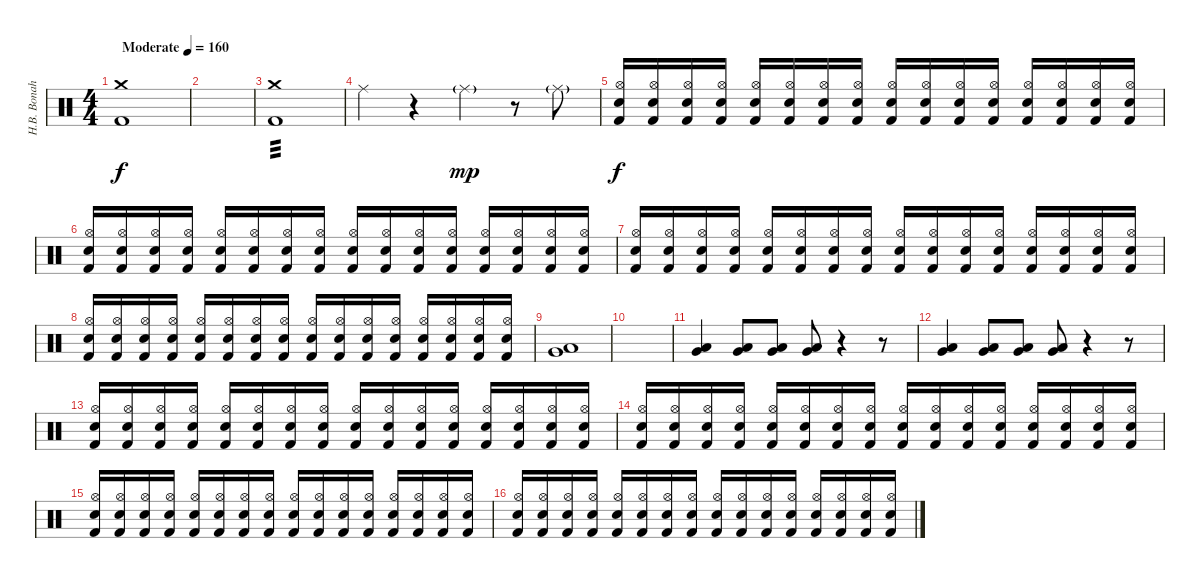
\track ("H.B. Bonah" "H.B. Bonah") {instrument percussion}
\staff {score}
\articulation defaults
\ts (4 4)
\tempo (160 "Moderate")
\clef neutral
\ks c
("Crash medium (hit)" "Kick (hit) 2").1{dy f} |
|
("Crash medium (hit)" "Kick (hit) 2").1{tp 3} |
"Ride (middle)".4 r.4 "Ride (middle)"{g}.4{dy mp} r.8 "Ride (middle)"{g}.8 |
("Hi-Hat (open)" "Electric Snare (hit)" "Kick (hit) 2").16{dy f} ("Hi-Hat (open)" "Electric Snare (hit)" "Kick (hit) 2").16 ("Hi-Hat (open)" "Electric Snare (hit)" "Kick (hit) 2").16 ("Hi-Hat (open)" "Electric Snare (hit)" "Kick (hit) 2").16 ("Hi-Hat (open)" "Electric Snare (hit)" "Kick (hit) 2").16 ("Hi-Hat (open)" "Electric Snare (hit)" "Kick (hit) 2").16 ("Hi-Hat (open)" "Electric Snare (hit)" "Kick (hit) 2").16 ("Hi-Hat (open)" "Electric Snare (hit)" "Kick (hit) 2").16 ("Hi-Hat (open)" "Electric Snare (hit)" "Kick (hit) 2").16 ("Hi-Hat (open)" "Electric Snare (hit)" "Kick (hit) 2").16 ("Hi-Hat (open)" "Electric Snare (hit)" "Kick (hit) 2").16 ("Hi-Hat (open)" "Electric Snare (hit)" "Kick (hit) 2").16 ("Hi-Hat (open)" "Electric Snare (hit)" "Kick (hit) 2").16 ("Hi-Hat (open)" "Electric Snare (hit)" "Kick (hit) 2").16 ("Hi-Hat (open)" "Electric Snare (hit)" "Kick (hit) 2").16 ("Hi-Hat (open)" "Electric Snare (hit)" "Kick (hit) 2").16 |
("Hi-Hat (open)" "Electric Snare (hit)" "Kick (hit) 2").16 ("Hi-Hat (open)" "Electric Snare (hit)" "Kick (hit) 2").16 ("Hi-Hat (open)" "Electric Snare (hit)" "Kick (hit) 2").16 ("Hi-Hat (open)" "Electric Snare (hit)" "Kick (hit) 2").16 ("Hi-Hat (open)" "Electric Snare (hit)" "Kick (hit) 2").16 ("Hi-Hat (open)" "Electric Snare (hit)" "Kick (hit) 2").16 ("Hi-Hat (open)" "Electric Snare (hit)" "Kick (hit) 2").16 ("Hi-Hat (open)" "Electric Snare (hit)" "Kick (hit) 2").16 ("Hi-Hat (open)" "Electric Snare (hit)" "Kick (hit) 2").16 ("Hi-Hat (open)" "Electric Snare (hit)" "Kick (hit) 2").16 ("Hi-Hat (open)" "Electric Snare (hit)" "Kick (hit) 2").16 ("Hi-Hat (open)" "Electric Snare (hit)" "Kick (hit) 2").16 ("Hi-Hat (open)" "Electric Snare (hit)" "Kick (hit) 2").16 ("Hi-Hat (open)" "Electric Snare (hit)" "Kick (hit) 2").16 ("Hi-Hat (open)" "Electric Snare (hit)" "Kick (hit) 2").16 ("Hi-Hat (open)" "Electric Snare (hit)" "Kick (hit) 2").16 |
("Hi-Hat (open)" "Electric Snare (hit)" "Kick (hit) 2").16 ("Hi-Hat (open)" "Electric Snare (hit)" "Kick (hit) 2").16 ("Hi-Hat (open)" "Electric Snare (hit)" "Kick (hit) 2").16 ("Hi-Hat (open)" "Electric Snare (hit)" "Kick (hit) 2").16 ("Hi-Hat (open)" "Electric Snare (hit)" "Kick (hit) 2").16 ("Hi-Hat (open)" "Electric Snare (hit)" "Kick (hit) 2").16 ("Hi-Hat (open)" "Electric Snare (hit)" "Kick (hit) 2").16 ("Hi-Hat (open)" "Electric Snare (hit)" "Kick (hit) 2").16 ("Hi-Hat (open)" "Electric Snare (hit)" "Kick (hit) 2").16 ("Hi-Hat (open)" "Electric Snare (hit)" "Kick (hit) 2").16 ("Hi-Hat (open)" "Electric Snare (hit)" "Kick (hit) 2").16 ("Hi-Hat (open)" "Electric Snare (hit)" "Kick (hit) 2").16 ("Hi-Hat (open)" "Electric Snare (hit)" "Kick (hit) 2").16 ("Hi-Hat (open)" "Electric Snare (hit)" "Kick (hit) 2").16 ("Hi-Hat (open)" "Electric Snare (hit)" "Kick (hit) 2").16 ("Hi-Hat (open)" "Electric Snare (hit)" "Kick (hit) 2").16 |
("Hi-Hat (open)" "Electric Snare (hit)" "Kick (hit) 2").16 ("Hi-Hat (open)" "Electric Snare (hit)" "Kick (hit) 2").16 ("Hi-Hat (open)" "Electric Snare (hit)" "Kick (hit) 2").16 ("Hi-Hat (open)" "Electric Snare (hit)" "Kick (hit) 2").16 ("Hi-Hat (open)" "Electric Snare (hit)" "Kick (hit) 2").16 ("Hi-Hat (open)" "Electric Snare (hit)" "Kick (hit) 2").16 ("Hi-Hat (open)" "Electric Snare (hit)" "Kick (hit) 2").16 ("Hi-Hat (open)" "Electric Snare (hit)" "Kick (hit) 2").16 ("Hi-Hat (open)" "Electric Snare (hit)" "Kick (hit) 2").16 ("Hi-Hat (open)" "Electric Snare (hit)" "Kick (hit) 2").16 ("Hi-Hat (open)" "Electric Snare (hit)" "Kick (hit) 2").16 ("Hi-Hat (open)" "Electric Snare (hit)" "Kick (hit) 2").16 ("Hi-Hat (open)" "Electric Snare (hit)" "Kick (hit) 2").16 ("Hi-Hat (open)" "Electric Snare (hit)" "Kick (hit) 2").16 ("Hi-Hat (open)" "Electric Snare (hit)" "Kick (hit) 2").16 ("Hi-Hat (open)" "Electric Snare (hit)" "Kick (hit) 2").16 |
("Very Low Tom (hit)" "Low Floor Tom (hit)").1 |
|
("Very Low Tom (hit)" "Low Floor Tom (hit)").4 ("Very Low Tom (hit)" "Low Floor Tom (hit)").8 ("Very Low Tom (hit)" "Low Floor Tom (hit)").8 ("Very Low Tom (hit)" "Low Floor Tom (hit)").8 r.4 r.8 |
("Very Low Tom (hit)" "Low Floor Tom (hit)").4 ("Very Low Tom (hit)" "Low Floor Tom (hit)").8 ("Very Low Tom (hit)" "Low Floor Tom (hit)").8 ("Very Low Tom (hit)" "Low Floor Tom (hit)").8 r.4 r.8 |
("Hi-Hat (open)" "Electric Snare (hit)" "Kick (hit) 2").16 ("Hi-Hat (open)" "Electric Snare (hit)" "Kick (hit) 2").16 ("Hi-Hat (open)" "Electric Snare (hit)" "Kick (hit) 2").16 ("Hi-Hat (open)" "Electric Snare (hit)" "Kick (hit) 2").16 ("Hi-Hat (open)" "Electric Snare (hit)" "Kick (hit) 2").16 ("Hi-Hat (open)" "Electric Snare (hit)" "Kick (hit) 2").16 ("Hi-Hat (open)" "Electric Snare (hit)" "Kick (hit) 2").16 ("Hi-Hat (open)" "Electric Snare (hit)" "Kick (hit) 2").16 ("Hi-Hat (open)" "Electric Snare (hit)" "Kick (hit) 2").16 ("Hi-Hat (open)" "Electric Snare (hit)" "Kick (hit) 2").16 ("Hi-Hat (open)" "Electric Snare (hit)" "Kick (hit) 2").16 ("Hi-Hat (open)" "Electric Snare (hit)" "Kick (hit) 2").16 ("Hi-Hat (open)" "Electric Snare (hit)" "Kick (hit) 2").16 ("Hi-Hat (open)" "Electric Snare (hit)" "Kick (hit) 2").16 ("Hi-Hat (open)" "Electric Snare (hit)" "Kick (hit) 2").16 ("Hi-Hat (open)" "Electric Snare (hit)" "Kick (hit) 2").16 |
("Hi-Hat (open)" "Electric Snare (hit)" "Kick (hit) 2").16 ("Hi-Hat (open)" "Electric Snare (hit)" "Kick (hit) 2").16 ("Hi-Hat (open)" "Electric Snare (hit)" "Kick (hit) 2").16 ("Hi-Hat (open)" "Electric Snare (hit)" "Kick (hit) 2").16 ("Hi-Hat (open)" "Electric Snare (hit)" "Kick (hit) 2").16 ("Hi-Hat (open)" "Electric Snare (hit)" "Kick (hit) 2").16 ("Hi-Hat (open)" "Electric Snare (hit)" "Kick (hit) 2").16 ("Hi-Hat (open)" "Electric Snare (hit)" "Kick (hit) 2").16 ("Hi-Hat (open)" "Electric Snare (hit)" "Kick (hit) 2").16 ("Hi-Hat (open)" "Electric Snare (hit)" "Kick (hit) 2").16 ("Hi-Hat (open)" "Electric Snare (hit)" "Kick (hit) 2").16 ("Hi-Hat (open)" "Electric Snare (hit)" "Kick (hit) 2").16 ("Hi-Hat (open)" "Electric Snare (hit)" "Kick (hit) 2").16 ("Hi-Hat (open)" "Electric Snare (hit)" "Kick (hit) 2").16 ("Hi-Hat (open)" "Electric Snare (hit)" "Kick (hit) 2").16 ("Hi-Hat (open)" "Electric Snare (hit)" "Kick (hit) 2").16 |
("Hi-Hat (open)" "Electric Snare (hit)" "Kick (hit) 2").16 ("Hi-Hat (open)" "Electric Snare (hit)" "Kick (hit) 2").16 ("Hi-Hat (open)" "Electric Snare (hit)" "Kick (hit) 2").16 ("Hi-Hat (open)" "Electric Snare (hit)" "Kick (hit) 2").16 ("Hi-Hat (open)" "Electric Snare (hit)" "Kick (hit) 2").16 ("Hi-Hat (open)" "Electric Snare (hit)" "Kick (hit) 2").16 ("Hi-Hat (open)" "Electric Snare (hit)" "Kick (hit) 2").16 ("Hi-Hat (open)" "Electric Snare (hit)" "Kick (hit) 2").16 ("Hi-Hat (open)" "Electric Snare (hit)" "Kick (hit) 2").16 ("Hi-Hat (open)" "Electric Snare (hit)" "Kick (hit) 2").16 ("Hi-Hat (open)" "Electric Snare (hit)" "Kick (hit) 2").16 ("Hi-Hat (open)" "Electric Snare (hit)" "Kick (hit) 2").16 ("Hi-Hat (open)" "Electric Snare (hit)" "Kick (hit) 2").16 ("Hi-Hat (open)" "Electric Snare (hit)" "Kick (hit) 2").16 ("Hi-Hat (open)" "Electric Snare (hit)" "Kick (hit) 2").16 ("Hi-Hat (open)" "Electric Snare (hit)" "Kick (hit) 2").16 |
("Hi-Hat (open)" "Electric Snare (hit)" "Kick (hit) 2").16 ("Hi-Hat (open)" "Electric Snare (hit)" "Kick (hit) 2").16 ("Hi-Hat (open)" "Electric Snare (hit)" "Kick (hit) 2").16 ("Hi-Hat (open)" "Electric Snare (hit)" "Kick (hit) 2").16 ("Hi-Hat (open)" "Electric Snare (hit)" "Kick (hit) 2").16 ("Hi-Hat (open)" "Electric Snare (hit)" "Kick (hit) 2").16 ("Hi-Hat (open)" "Electric Snare (hit)" "Kick (hit) 2").16 ("Hi-Hat (open)" "Electric Snare (hit)" "Kick (hit) 2").16 ("Hi-Hat (open)" "Electric Snare (hit)" "Kick (hit) 2").16 ("Hi-Hat (open)" "Electric Snare (hit)" "Kick (hit) 2").16 ("Hi-Hat (open)" "Electric Snare (hit)" "Kick (hit) 2").16 ("Hi-Hat (open)" "Electric Snare (hit)" "Kick (hit) 2").16 ("Hi-Hat (open)" "Electric Snare (hit)" "Kick (hit) 2").16 ("Hi-Hat (open)" "Electric Snare (hit)" "Kick (hit) 2").16 ("Hi-Hat (open)" "Electric Snare (hit)" "Kick (hit) 2").16 ("Hi-Hat (open)" "Electric Snare (hit)" "Kick (hit) 2").16
